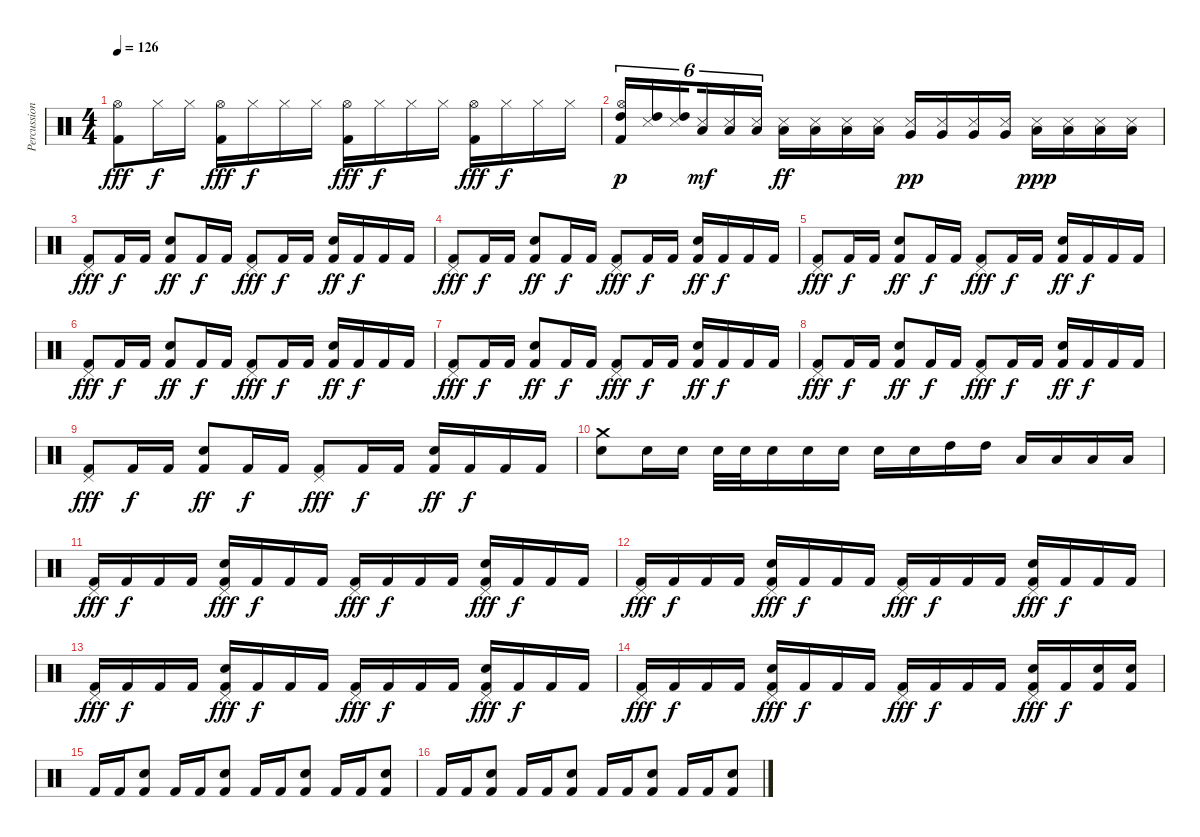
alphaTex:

\track ("Percussion" "Percussion") {instrument percussion}
\staff {score}
\articulation defaults
\ts (4 4)
\tempo 126
\clef neutral
\ks c
("Kick (hit) 2" "Hi-Hat (open)").8{dy fff} "Hi-Hat (closed)".16{dy f} "Hi-Hat (closed)".16 ("Kick (hit) 2" "Hi-Hat (open)").16{dy fff} "Hi-Hat (closed)".16{dy f} "Hi-Hat (closed)".16 "Hi-Hat (closed)".16 ("Kick (hit) 2" "Hi-Hat (open)").16{dy fff} "Hi-Hat (closed)".16{dy f} "Hi-Hat (closed)".16 "Hi-Hat (closed)".16 ("Kick (hit) 2" "Hi-Hat (open)").16{dy fff} "Hi-Hat (closed)".16{dy f} "Hi-Hat (closed)".16 "Hi-Hat (closed)".16 |
("High Tom (hit)" "Kick (hit) 2" "Hi-Hat (open)").16{tu (6 4) dy p} ("High Tom (hit)" "Snare (side stick) 3").16{tu (6 4)} ("High Tom (hit)" "Snare (side stick) 3").16{tu (6 4) beam splitsecondary} ("Low Tom (hit)" "Snare (side stick) 3").16{tu (6 4) dy mf} ("Low Tom (hit)" "Snare (side stick) 3").16{tu (6 4)} ("Low Tom (hit)" "Snare (side stick) 3").16{tu (6 4)} ("Low Tom (hit)" "Snare (side stick) 3").16{dy ff} ("Low Tom (hit)" "Snare (side stick) 3").16 ("Low Tom (hit)" "Snare (side stick) 3").16 ("Low Tom (hit)" "Snare (side stick) 3").16 ("Very Low Tom (hit)" "Snare (side stick) 3").16{dy pp} ("Very Low Tom (hit)" "Snare (side stick) 3").16 ("Very Low Tom (hit)" "Snare (side stick) 3").16 ("Very Low Tom (hit)" "Snare (side stick) 3").16 ("Low Floor Tom (hit)" "Snare (side stick) 3").16{dy ppp} ("Low Floor Tom (hit)" "Snare (side stick) 3").16 ("Low Floor Tom (hit)" "Snare (side stick) 3").16 ("Low Floor Tom (hit)" "Snare (side stick) 3").16 |
("Kick (hit) 2" "Pedal Hi-Hat (hit)").8{dy fff} "Kick (hit) 2".16{dy f} "Kick (hit) 2".16 ("Kick (hit) 2" "Electric Snare (hit)").8{dy ff} "Kick (hit) 2".16{dy f} "Kick (hit) 2".16 ("Kick (hit) 2" "Pedal Hi-Hat (hit)").8{dy fff} "Kick (hit) 2".16{dy f} "Kick (hit) 2".16 ("Kick (hit) 2" "Electric Snare (hit)").16{dy ff} "Kick (hit) 2".16{dy f} "Kick (hit) 2".16 "Kick (hit) 2".16 |
("Kick (hit) 2" "Pedal Hi-Hat (hit)").8{dy fff} "Kick (hit) 2".16{dy f} "Kick (hit) 2".16 ("Kick (hit) 2" "Electric Snare (hit)").8{dy ff} "Kick (hit) 2".16{dy f} "Kick (hit) 2".16 ("Kick (hit) 2" "Pedal Hi-Hat (hit)").8{dy fff} "Kick (hit) 2".16{dy f} "Kick (hit) 2".16 ("Kick (hit) 2" "Electric Snare (hit)").16{dy ff} "Kick (hit) 2".16{dy f} "Kick (hit) 2".16 "Kick (hit) 2".16 |
("Kick (hit) 2" "Pedal Hi-Hat (hit)").8{dy fff} "Kick (hit) 2".16{dy f} "Kick (hit) 2".16 ("Kick (hit) 2" "Electric Snare (hit)").8{dy ff} "Kick (hit) 2".16{dy f} "Kick (hit) 2".16 ("Kick (hit) 2" "Pedal Hi-Hat (hit)").8{dy fff} "Kick (hit) 2".16{dy f} "Kick (hit) 2".16 ("Kick (hit) 2" "Electric Snare (hit)").16{dy ff} "Kick (hit) 2".16{dy f} "Kick (hit) 2".16 "Kick (hit) 2".16 |
("Kick (hit) 2" "Pedal Hi-Hat (hit)").8{dy fff} "Kick (hit) 2".16{dy f} "Kick (hit) 2".16 ("Kick (hit) 2" "Electric Snare (hit)").8{dy ff} "Kick (hit) 2".16{dy f} "Kick (hit) 2".16 ("Kick (hit) 2" "Pedal Hi-Hat (hit)").8{dy fff} "Kick (hit) 2".16{dy f} "Kick (hit) 2".16 ("Kick (hit) 2" "Electric Snare (hit)").16{dy ff} "Kick (hit) 2".16{dy f} "Kick (hit) 2".16 "Kick (hit) 2".16 |
("Kick (hit) 2" "Pedal Hi-Hat (hit)").8{dy fff} "Kick (hit) 2".16{dy f} "Kick (hit) 2".16 ("Kick (hit) 2" "Electric Snare (hit)").8{dy ff} "Kick (hit) 2".16{dy f} "Kick (hit) 2".16 ("Kick (hit) 2" "Pedal Hi-Hat (hit)").8{dy fff} "Kick (hit) 2".16{dy f} "Kick (hit) 2".16 ("Kick (hit) 2" "Electric Snare (hit)").16{dy ff} "Kick (hit) 2".16{dy f} "Kick (hit) 2".16 "Kick (hit) 2".16 |
("Kick (hit) 2" "Pedal Hi-Hat (hit)").8{dy fff} "Kick (hit) 2".16{dy f} "Kick (hit) 2".16 ("Kick (hit) 2" "Electric Snare (hit)").8{dy ff} "Kick (hit) 2".16{dy f} "Kick (hit) 2".16 ("Kick (hit) 2" "Pedal Hi-Hat (hit)").8{dy fff} "Kick (hit) 2".16{dy f} "Kick (hit) 2".16 ("Kick (hit) 2" "Electric Snare (hit)").16{dy ff} "Kick (hit) 2".16{dy f} "Kick (hit) 2".16 "Kick (hit) 2".16 |
("Kick (hit) 2" "Pedal Hi-Hat (hit)").8{dy fff} "Kick (hit) 2".16{dy f} "Kick (hit) 2".16 ("Kick (hit) 2" "Electric Snare (hit)").8{dy ff} "Kick (hit) 2".16{dy f} "Kick (hit) 2".16 ("Kick (hit) 2" "Pedal Hi-Hat (hit)").8{dy fff} "Kick (hit) 2".16{dy f} "Kick (hit) 2".16 ("Kick (hit) 2" "Electric Snare (hit)").16{dy ff} "Kick (hit) 2".16{dy f} "Kick (hit) 2".16 "Kick (hit) 2".16 |
("Crash medium (hit)" "Electric Snare (hit)").8 "Electric Snare (hit)".16 "Electric Snare (hit)".16 "Electric Snare (hit)".32 "Electric Snare (hit)".32 "Electric Snare (hit)".16 "Electric Snare (hit)".16 "Electric Snare (hit)".16 "Electric Snare (hit)".16 "Electric Snare (hit)".16 "High Tom (hit)".16 "High Tom (hit)".16 "Low Tom (hit)".16 "Low Tom (hit)".16 "Low Tom (hit)".16 "Low Tom (hit)".16 |
("Kick (hit) 2" "Pedal Hi-Hat (hit)").16{dy fff} "Kick (hit) 2".16{dy f} "Kick (hit) 2".16 "Kick (hit) 2".16 ("Kick (hit) 2" "Electric Snare (hit)" "Pedal Hi-Hat (hit)").16{dy fff} "Kick (hit) 2".16{dy f} "Kick (hit) 2".16 "Kick (hit) 2".16 ("Kick (hit) 2" "Pedal Hi-Hat (hit)").16{dy fff} "Kick (hit) 2".16{dy f} "Kick (hit) 2".16 "Kick (hit) 2".16 ("Kick (hit) 2" "Electric Snare (hit)" "Pedal Hi-Hat (hit)").16{dy fff} "Kick (hit) 2".16{dy f} "Kick (hit) 2".16 "Kick (hit) 2".16 |
("Kick (hit) 2" "Pedal Hi-Hat (hit)").16{dy fff} "Kick (hit) 2".16{dy f} "Kick (hit) 2".16 "Kick (hit) 2".16 ("Kick (hit) 2" "Electric Snare (hit)" "Pedal Hi-Hat (hit)").16{dy fff} "Kick (hit) 2".16{dy f} "Kick (hit) 2".16 "Kick (hit) 2".16 ("Kick (hit) 2" "Pedal Hi-Hat (hit)").16{dy fff} "Kick (hit) 2".16{dy f} "Kick (hit) 2".16 "Kick (hit) 2".16 ("Kick (hit) 2" "Electric Snare (hit)" "Pedal Hi-Hat (hit)").16{dy fff} "Kick (hit) 2".16{dy f} "Kick (hit) 2".16 "Kick (hit) 2".16 |
("Kick (hit) 2" "Pedal Hi-Hat (hit)").16{dy fff} "Kick (hit) 2".16{dy f} "Kick (hit) 2".16 "Kick (hit) 2".16 ("Kick (hit) 2" "Electric Snare (hit)" "Pedal Hi-Hat (hit)").16{dy fff} "Kick (hit) 2".16{dy f} "Kick (hit) 2".16 "Kick (hit) 2".16 ("Kick (hit) 2" "Pedal Hi-Hat (hit)").16{dy fff} "Kick (hit) 2".16{dy f} "Kick (hit) 2".16 "Kick (hit) 2".16 ("Kick (hit) 2" "Electric Snare (hit)" "Pedal Hi-Hat (hit)").16{dy fff} "Kick (hit) 2".16{dy f} "Kick (hit) 2".16 "Kick (hit) 2".16 |
("Kick (hit) 2" "Pedal Hi-Hat (hit)").16{dy fff} "Kick (hit) 2".16{dy f} "Kick (hit) 2".16 "Kick (hit) 2".16 ("Kick (hit) 2" "Electric Snare (hit)" "Pedal Hi-Hat (hit)").16{dy fff} "Kick (hit) 2".16{dy f} "Kick (hit) 2".16 "Kick (hit) 2".16 ("Kick (hit) 2" "Pedal Hi-Hat (hit)").16{dy fff} "Kick (hit) 2".16{dy f} "Kick (hit) 2".16 "Kick (hit) 2".16 ("Kick (hit) 2" "Electric Snare (hit)" "Pedal Hi-Hat (hit)").16{dy fff} "Kick (hit) 2".16{dy f} ("Kick (hit) 2" "Electric Snare (hit)").16 ("Kick (hit) 2" "Electric Snare (hit)").16 |
"Kick (hit) 2".16 "Kick (hit) 2".16 ("Kick (hit) 2" "Electric Snare (hit)").8 "Kick (hit) 2".16 "Kick (hit) 2".16 ("Kick (hit) 2" "Electric Snare (hit)").8 "Kick (hit) 2".16 "Kick (hit) 2".16 ("Kick (hit) 2" "Electric Snare (hit)").8 "Kick (hit) 2".16 "Kick (hit) 2".16 ("Kick (hit) 2" "Electric Snare (hit)").8 |
"Kick (hit) 2".16 "Kick (hit) 2".16 ("Kick (hit) 2" "Electric Snare (hit)").8 "Kick (hit) 2".16 "Kick (hit) 2".16 ("Kick (hit) 2" "Electric Snare (hit)").8 "Kick (hit) 2".16 "Kick (hit) 2".16 ("Kick (hit) 2" "Electric Snare (hit)").8 "Kick (hit) 2".16 "Kick (hit) 2".16 ("Kick (hit) 2" "Electric Snare (hit)").8
